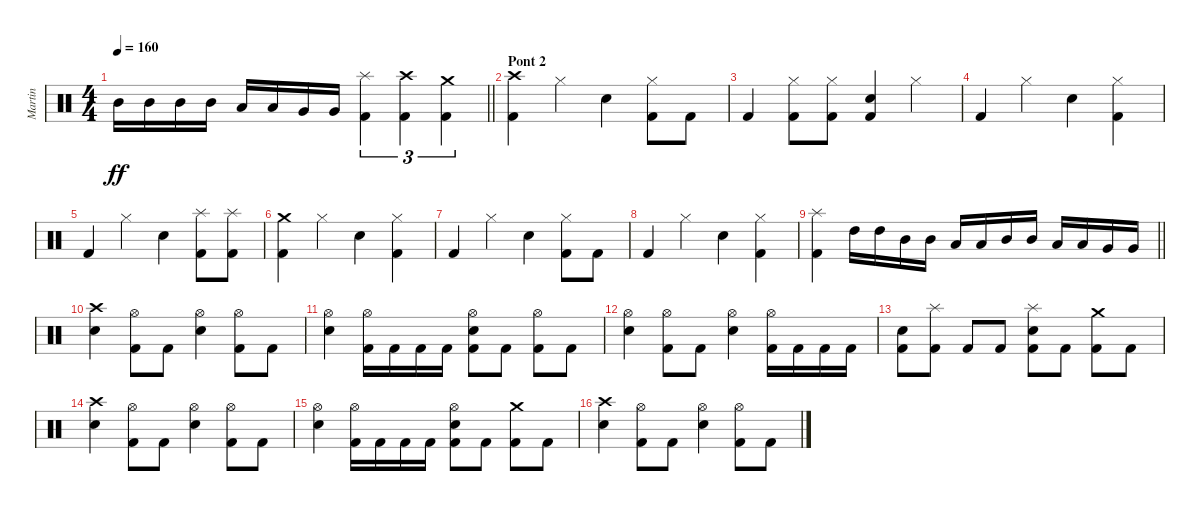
\track ("Martin" "Martin") {instrument percussion}
\staff {score}
\articulation defaults
\ts (4 4)
\tempo 160
\clef neutral
\barLineRight lightlight
\ks c "Mid Tom (hit)".16{dy ff} "Mid Tom (hit)".16 "Mid Tom (hit)".16 "Mid Tom (hit)".16 "Low Tom (hit)".16 "Low Tom (hit)".16 "Very Low Tom (hit)".16 "Very Low Tom (hit)".16
("Splash (hit)" "Kick (hit) 2").4{tu (3 2)} ("Crash high (hit)" "Kick (hit) 2").4{tu (3 2)} ("Crash medium (hit)" "Kick (hit) 2").4{tu (3 2)} |
\section ("" "Pont 2")
("Crash high (hit)" "Kick (hit) 2").4 "Hi-Hat (closed)".4 "Electric Snare (hit)".4 ("Hi-Hat (closed)" "Kick (hit) 2").8 "Kick (hit) 2".8 |
"Kick (hit) 2".4 ("Hi-Hat (closed)" "Kick (hit) 2").8 ("Hi-Hat (closed)" "Kick (hit) 2").8 ("Electric Snare (hit)" "Kick (hit) 2").4 "Hi-Hat (closed)".4 |
"Kick (hit) 2".4 "Hi-Hat (closed)".4 "Electric Snare (hit)".4 ("Hi-Hat (closed)" "Kick (hit) 2").4 |
"Kick (hit) 2".4 "Hi-Hat (closed)".4 "Electric Snare (hit)".4 ("Splash (hit)" "Kick (hit) 2").8 ("Splash (hit)" "Kick (hit) 2").8 |
("Crash medium (hit)" "Kick (hit) 2").4 "Hi-Hat (closed)".4 "Electric Snare (hit)".4 ("Hi-Hat (closed)" "Kick (hit) 2").4 |
"Kick (hit) 2".4 "Hi-Hat (closed)".4 "Electric Snare (hit)".4 ("Hi-Hat (closed)" "Kick (hit) 2").8 "Kick (hit) 2".8 |
"Kick (hit) 2".4 "Hi-Hat (closed)".4 "Electric Snare (hit)".4 ("Hi-Hat (closed)" "Kick (hit) 2").4 |
\barLineRight lightlight
("Splash (hit)" "Kick (hit) 2").4 "High Tom (hit)".16 "High Tom (hit)".16 "Mid Tom (hit)".16 "Mid Tom (hit)".16 "Low Tom (hit)".16 "Low Tom (hit)".16 "Mid Tom (hit)".16 "Mid Tom (hit)".16 "Low Tom (hit)".16 "Low Tom (hit)".16 "Very Low Tom (hit)".16 "Very Low Tom (hit)".16 |
("Crash high (hit)" "Electric Snare (hit)").4 ("Hi-Hat (open)" "Kick (hit) 2").8 "Kick (hit) 2".8 ("Hi-Hat (open)" "Electric Snare (hit)").4 ("Hi-Hat (open)" "Kick (hit) 2").8 "Kick (hit) 2".8 |
("Hi-Hat (open)" "Electric Snare (hit)").4 ("Hi-Hat (open)" "Kick (hit) 2").16 "Kick (hit) 2".16 "Kick (hit) 2".16 "Kick (hit) 2".16 ("Hi-Hat (open)" "Electric Snare (hit)" "Kick (hit) 2").8 "Kick (hit) 2".8 ("Hi-Hat (open)" "Kick (hit) 2").8 "Kick (hit) 2".8 |
("Hi-Hat (open)" "Electric Snare (hit)").4 ("Hi-Hat (open)" "Kick (hit) 2").8 "Kick (hit) 2".8 ("Hi-Hat (open)" "Electric Snare (hit)").4 ("Hi-Hat (open)" "Kick (hit) 2").16 "Kick (hit) 2".16 "Kick (hit) 2".16 "Kick (hit) 2".16 |
("Electric Snare (hit)" "Kick (hit) 2").8 ("Splash (hit)" "Kick (hit) 2").8 "Kick (hit) 2".8 "Kick (hit) 2".8 ("Splash (hit)" "Electric Snare (hit)" "Kick (hit) 2").8 "Kick (hit) 2".8 ("Crash medium (hit)" "Kick (hit) 2").8 "Kick (hit) 2".8 |
("Crash high (hit)" "Electric Snare (hit)").4 ("Hi-Hat (open)" "Kick (hit) 2").8 "Kick (hit) 2".8 ("Hi-Hat (open)" "Electric Snare (hit)").4 ("Hi-Hat (open)" "Kick (hit) 2").8 "Kick (hit) 2".8 |
("Hi-Hat (open)" "Electric Snare (hit)").4 ("Hi-Hat (open)" "Kick (hit) 2").16 "Kick (hit) 2".16 "Kick (hit) 2".16 "Kick (hit) 2".16 ("Hi-Hat (open)" "Electric Snare (hit)" "Kick (hit) 2").8 "Kick (hit) 2".8 ("Crash medium (hit)" "Kick (hit) 2").8 "Kick (hit) 2".8 |
("Crash high (hit)" "Electric Snare (hit)").4 ("Hi-Hat (open)" "Kick (hit) 2").8 "Kick (hit) 2".8 ("Hi-Hat (open)" "Electric Snare (hit)").4 ("Hi-Hat (open)" "Kick (hit) 2").8 "Kick (hit) 2".8
